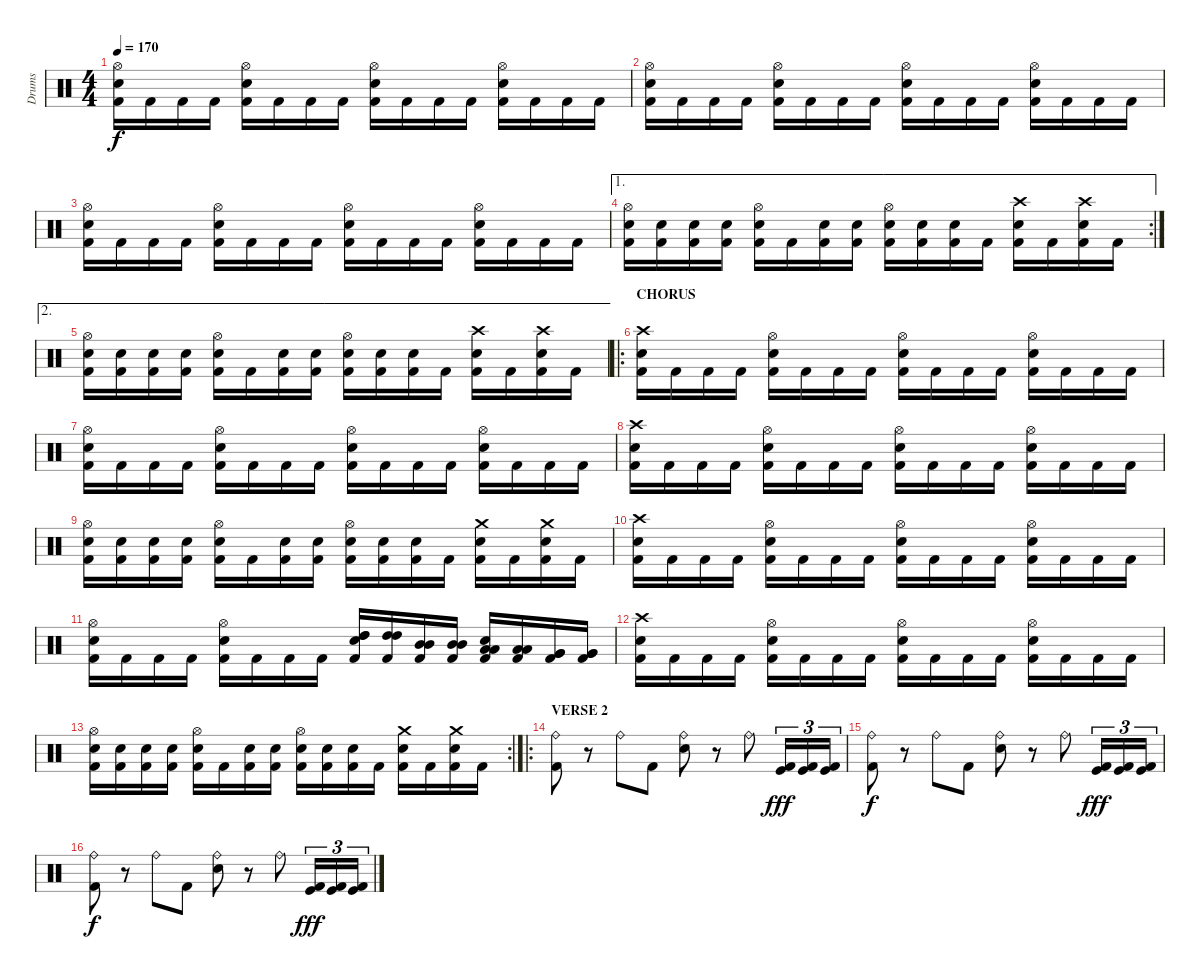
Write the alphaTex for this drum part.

\track ("Drums" "Drums") {instrument percussion}
\staff {score}
\articulation defaults
\ts (4 4)
\tempo 170
\clef neutral
\ks c
("Hi-Hat (open)" "Electric Snare (hit)" "Kick (hit) 2").16{dy f} "Kick (hit) 2".16 "Kick (hit) 2".16 "Kick (hit) 2".16 ("Hi-Hat (open)" "Electric Snare (hit)" "Kick (hit) 2").16 "Kick (hit) 2".16 "Kick (hit) 2".16 "Kick (hit) 2".16 ("Hi-Hat (open)" "Electric Snare (hit)" "Kick (hit) 2").16 "Kick (hit) 2".16 "Kick (hit) 2".16 "Kick (hit) 2".16 ("Hi-Hat (open)" "Electric Snare (hit)" "Kick (hit) 2").16 "Kick (hit) 2".16 "Kick (hit) 2".16 "Kick (hit) 2".16 |
("Hi-Hat (open)" "Electric Snare (hit)" "Kick (hit) 2").16 "Kick (hit) 2".16 "Kick (hit) 2".16 "Kick (hit) 2".16 ("Hi-Hat (open)" "Electric Snare (hit)" "Kick (hit) 2").16 "Kick (hit) 2".16 "Kick (hit) 2".16 "Kick (hit) 2".16 ("Hi-Hat (open)" "Electric Snare (hit)" "Kick (hit) 2").16 "Kick (hit) 2".16 "Kick (hit) 2".16 "Kick (hit) 2".16 ("Hi-Hat (open)" "Electric Snare (hit)" "Kick (hit) 2").16 "Kick (hit) 2".16 "Kick (hit) 2".16 "Kick (hit) 2".16 |
("Hi-Hat (open)" "Electric Snare (hit)" "Kick (hit) 2").16 "Kick (hit) 2".16 "Kick (hit) 2".16 "Kick (hit) 2".16 ("Hi-Hat (open)" "Electric Snare (hit)" "Kick (hit) 2").16 "Kick (hit) 2".16 "Kick (hit) 2".16 "Kick (hit) 2".16 ("Hi-Hat (open)" "Electric Snare (hit)" "Kick (hit) 2").16 "Kick (hit) 2".16 "Kick (hit) 2".16 "Kick (hit) 2".16 ("Hi-Hat (open)" "Electric Snare (hit)" "Kick (hit) 2").16 "Kick (hit) 2".16 "Kick (hit) 2".16 "Kick (hit) 2".16 |
\ae 1
\rc 2
("Hi-Hat (open)" "Electric Snare (hit)" "Kick (hit) 2").16 ("Electric Snare (hit)" "Kick (hit) 2").16 ("Electric Snare (hit)" "Kick (hit) 2").16 ("Electric Snare (hit)" "Kick (hit) 2").16 ("Hi-Hat (open)" "Electric Snare (hit)" "Kick (hit) 2").16 "Kick (hit) 2".16 ("Electric Snare (hit)" "Kick (hit) 2").16 ("Electric Snare (hit)" "Kick (hit) 2").16 ("Hi-Hat (open)" "Electric Snare (hit)" "Kick (hit) 2").16 ("Electric Snare (hit)" "Kick (hit) 2").16 ("Electric Snare (hit)" "Kick (hit) 2").16 "Kick (hit) 2".16 ("Crash high (hit)" "Electric Snare (hit)" "Kick (hit) 2").16 "Kick (hit) 2".16 ("Crash high (hit)" "Electric Snare (hit)" "Kick (hit) 2").16 "Kick (hit) 2".16 |
\ae 2
("Hi-Hat (open)" "Electric Snare (hit)" "Kick (hit) 2").16 ("Electric Snare (hit)" "Kick (hit) 2").16 ("Electric Snare (hit)" "Kick (hit) 2").16 ("Electric Snare (hit)" "Kick (hit) 2").16 ("Hi-Hat (open)" "Electric Snare (hit)" "Kick (hit) 2").16 "Kick (hit) 2".16 ("Electric Snare (hit)" "Kick (hit) 2").16 ("Electric Snare (hit)" "Kick (hit) 2").16 ("Hi-Hat (open)" "Electric Snare (hit)" "Kick (hit) 2").16 ("Electric Snare (hit)" "Kick (hit) 2").16 ("Electric Snare (hit)" "Kick (hit) 2").16 "Kick (hit) 2".16 ("Crash high (hit)" "Electric Snare (hit)" "Kick (hit) 2").16 "Kick (hit) 2".16 ("Crash high (hit)" "Electric Snare (hit)" "Kick (hit) 2").16 "Kick (hit) 2".16 |
\ro
\section ("" "CHORUS")
("Crash high (hit)" "Electric Snare (hit)" "Kick (hit) 2").16 "Kick (hit) 2".16 "Kick (hit) 2".16 "Kick (hit) 2".16 ("Hi-Hat (open)" "Electric Snare (hit)" "Kick (hit) 2").16 "Kick (hit) 2".16 "Kick (hit) 2".16 "Kick (hit) 2".16 ("Hi-Hat (open)" "Electric Snare (hit)" "Kick (hit) 2").16 "Kick (hit) 2".16 "Kick (hit) 2".16 "Kick (hit) 2".16 ("Hi-Hat (open)" "Electric Snare (hit)" "Kick (hit) 2").16 "Kick (hit) 2".16 "Kick (hit) 2".16 "Kick (hit) 2".16 |
("Hi-Hat (open)" "Electric Snare (hit)" "Kick (hit) 2").16 "Kick (hit) 2".16 "Kick (hit) 2".16 "Kick (hit) 2".16 ("Hi-Hat (open)" "Electric Snare (hit)" "Kick (hit) 2").16 "Kick (hit) 2".16 "Kick (hit) 2".16 "Kick (hit) 2".16 ("Hi-Hat (open)" "Electric Snare (hit)" "Kick (hit) 2").16 "Kick (hit) 2".16 "Kick (hit) 2".16 "Kick (hit) 2".16 ("Hi-Hat (open)" "Electric Snare (hit)" "Kick (hit) 2").16 "Kick (hit) 2".16 "Kick (hit) 2".16 "Kick (hit) 2".16 |
("Crash high (hit)" "Electric Snare (hit)" "Kick (hit) 2").16 "Kick (hit) 2".16 "Kick (hit) 2".16 "Kick (hit) 2".16 ("Hi-Hat (open)" "Electric Snare (hit)" "Kick (hit) 2").16 "Kick (hit) 2".16 "Kick (hit) 2".16 "Kick (hit) 2".16 ("Hi-Hat (open)" "Electric Snare (hit)" "Kick (hit) 2").16 "Kick (hit) 2".16 "Kick (hit) 2".16 "Kick (hit) 2".16 ("Hi-Hat (open)" "Electric Snare (hit)" "Kick (hit) 2").16 "Kick (hit) 2".16 "Kick (hit) 2".16 "Kick (hit) 2".16 |
("Hi-Hat (open)" "Electric Snare (hit)" "Kick (hit) 2").16 ("Electric Snare (hit)" "Kick (hit) 2").16 ("Electric Snare (hit)" "Kick (hit) 2").16 ("Electric Snare (hit)" "Kick (hit) 2").16 ("Hi-Hat (open)" "Electric Snare (hit)" "Kick (hit) 2").16 "Kick (hit) 2".16 ("Electric Snare (hit)" "Kick (hit) 2").16 ("Electric Snare (hit)" "Kick (hit) 2").16 ("Hi-Hat (open)" "Electric Snare (hit)" "Kick (hit) 2").16 ("Electric Snare (hit)" "Kick (hit) 2").16 ("Electric Snare (hit)" "Kick (hit) 2").16 "Kick (hit) 2".16 ("Crash medium (hit)" "Electric Snare (hit)" "Kick (hit) 2").16 "Kick (hit) 2".16 ("Crash medium (hit)" "Electric Snare (hit)" "Kick (hit) 2").16 "Kick (hit) 2".16 |
("Crash high (hit)" "Electric Snare (hit)" "Kick (hit) 2").16 "Kick (hit) 2".16 "Kick (hit) 2".16 "Kick (hit) 2".16 ("Hi-Hat (open)" "Electric Snare (hit)" "Kick (hit) 2").16 "Kick (hit) 2".16 "Kick (hit) 2".16 "Kick (hit) 2".16 ("Hi-Hat (open)" "Electric Snare (hit)" "Kick (hit) 2").16 "Kick (hit) 2".16 "Kick (hit) 2".16 "Kick (hit) 2".16 ("Hi-Hat (open)" "Electric Snare (hit)" "Kick (hit) 2").16 "Kick (hit) 2".16 "Kick (hit) 2".16 "Kick (hit) 2".16 |
("Hi-Hat (open)" "Electric Snare (hit)" "Kick (hit) 2").16 "Kick (hit) 2".16 "Kick (hit) 2".16 "Kick (hit) 2".16 ("Hi-Hat (open)" "Electric Snare (hit)" "Kick (hit) 2").16 "Kick (hit) 2".16 "Kick (hit) 2".16 "Kick (hit) 2".16 ("High Tom (hit)" "High Tom (hit)" "Electric Snare (hit)" "Kick (hit) 2").16 ("High Tom (hit)" "High Tom (hit)" "Kick (hit) 2").16 ("Mid Tom (hit)" "Mid Tom (hit)" "Kick (hit) 2").16 ("Mid Tom (hit)" "Mid Tom (hit)" "Kick (hit) 2").16 ("Low Tom (hit)" "Low Tom (hit)" "Electric Snare (hit)" "Kick (hit) 2").16 ("Low Tom (hit)" "Low Tom (hit)" "Kick (hit) 2").16 ("Very Low Tom (hit)" "Very Low Tom (hit)" "Kick (hit) 2").16 ("Very Low Tom (hit)" "Very Low Tom (hit)" "Kick (hit) 2").16 |
("Crash high (hit)" "Electric Snare (hit)" "Kick (hit) 2").16 "Kick (hit) 2".16 "Kick (hit) 2".16 "Kick (hit) 2".16 ("Hi-Hat (open)" "Electric Snare (hit)" "Kick (hit) 2").16 "Kick (hit) 2".16 "Kick (hit) 2".16 "Kick (hit) 2".16 ("Hi-Hat (open)" "Electric Snare (hit)" "Kick (hit) 2").16 "Kick (hit) 2".16 "Kick (hit) 2".16 "Kick (hit) 2".16 ("Hi-Hat (open)" "Electric Snare (hit)" "Kick (hit) 2").16 "Kick (hit) 2".16 "Kick (hit) 2".16 "Kick (hit) 2".16 |
\rc 2
("Hi-Hat (open)" "Electric Snare (hit)" "Kick (hit) 2").16 ("Electric Snare (hit)" "Kick (hit) 2").16 ("Electric Snare (hit)" "Kick (hit) 2").16 ("Electric Snare (hit)" "Kick (hit) 2").16 ("Hi-Hat (open)" "Electric Snare (hit)" "Kick (hit) 2").16 "Kick (hit) 2".16 ("Electric Snare (hit)" "Kick (hit) 2").16 ("Electric Snare (hit)" "Kick (hit) 2").16 ("Hi-Hat (open)" "Electric Snare (hit)" "Kick (hit) 2").16 ("Electric Snare (hit)" "Kick (hit) 2").16 ("Electric Snare (hit)" "Kick (hit) 2").16 "Kick (hit) 2".16 ("Crash medium (hit)" "Electric Snare (hit)" "Kick (hit) 2").16 "Kick (hit) 2".16 ("Crash medium (hit)" "Electric Snare (hit)" "Kick (hit) 2").16 "Kick (hit) 2".16 |
\ro
\section ("" "VERSE 2")
("Ride (bell)" "Kick (hit) 2").8 r.8 "Ride (bell)".8 "Kick (hit) 2".8 ("Ride (bell)" "Electric Snare (hit)").8 r.8 "Ride (bell)".8 ("Kick (hit)" "Kick (hit) 2").16{tu (3 2) dy fff} ("Kick (hit)" "Kick (hit) 2").16{tu (3 2)} ("Kick (hit)" "Kick (hit) 2").16{tu (3 2)} |
("Ride (bell)" "Kick (hit) 2").8{dy f} r.8 "Ride (bell)".8 "Kick (hit) 2".8 ("Ride (bell)" "Electric Snare (hit)").8 r.8 "Ride (bell)".8 ("Kick (hit)" "Kick (hit) 2").16{tu (3 2) dy fff} ("Kick (hit)" "Kick (hit) 2").16{tu (3 2)} ("Kick (hit)" "Kick (hit) 2").16{tu (3 2)} |
("Ride (bell)" "Kick (hit) 2").8{dy f} r.8 "Ride (bell)".8 "Kick (hit) 2".8 ("Ride (bell)" "Electric Snare (hit)").8 r.8 "Ride (bell)".8 ("Kick (hit)" "Kick (hit) 2").16{tu (3 2) dy fff} ("Kick (hit)" "Kick (hit) 2").16{tu (3 2)} ("Kick (hit)" "Kick (hit) 2").16{tu (3 2)}
